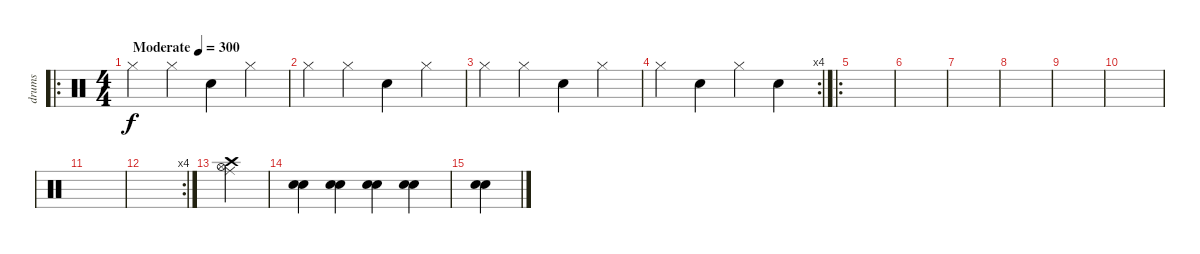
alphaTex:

\track ("drums" "drums") {instrument percussion}
\staff {score}
\articulation defaults
\ro
\ts (4 4)
\tempo (300 "Moderate")
\clef neutral
\ks c "Hi-Hat (closed)".4{dy f} "Hi-Hat (closed)".4 "Electric Snare (hit)".4 "Hi-Hat (closed)".4
|
"Hi-Hat (closed)".4 "Hi-Hat (closed)".4 "Electric Snare (hit)".4 "Hi-Hat (closed)".4 |
"Hi-Hat (closed)".4 "Hi-Hat (closed)".4 "Electric Snare (hit)".4 "Hi-Hat (closed)".4 |
\rc 4 "Hi-Hat (closed)".4 "Electric Snare (hit)".4 "Hi-Hat (closed)".4 "Electric Snare (hit)".4
|
\ro
|
|
|
|
|
|
|
\rc 4
|
("Ride (middle)" "Hi-Hat (open)" "Crash high (hit)").4 |
("Snare (hit) 2" "Electric Snare (hit)").4 ("Snare (hit) 2" "Electric Snare (hit)").4 ("Snare (hit) 2" "Electric Snare (hit)").4 ("Snare (hit) 2" "Electric Snare (hit)").4 |
("Snare (hit) 2" "Electric Snare (hit)").4
